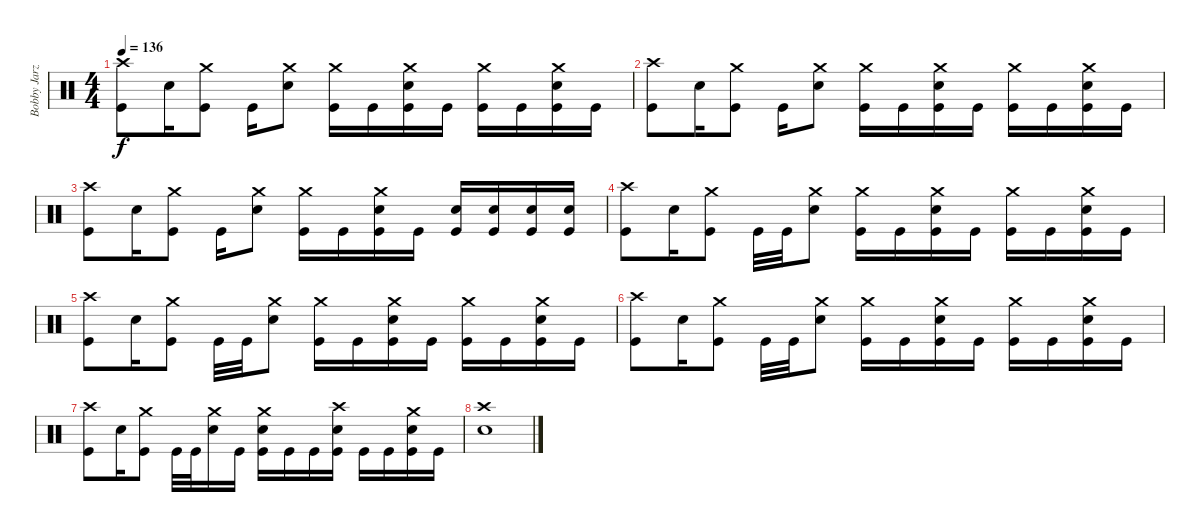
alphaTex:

\track ("Bobby Jarzombek" "Bobby Jarz") {instrument percussion}
\staff {score}
\articulation defaults
\ts (4 4)
\tempo 136
\clef neutral
\ks c
("Crash high (hit)" "Kick (hit)").8{dy f} "Electric Snare (hit)".16 ("Crash medium (hit)" "Kick (hit)").8 "Kick (hit)".16 ("Crash medium (hit)" "Electric Snare (hit)").8 ("Crash medium (hit)" "Kick (hit)").16 "Kick (hit)".16 ("Crash medium (hit)" "Electric Snare (hit)" "Kick (hit)").16 "Kick (hit)".16 ("Crash medium (hit)" "Kick (hit)").16 "Kick (hit)".16 ("Crash medium (hit)" "Electric Snare (hit)" "Kick (hit)").16 "Kick (hit)".16 |
("Crash high (hit)" "Kick (hit)").8 "Electric Snare (hit)".16 ("Crash medium (hit)" "Kick (hit)").8 "Kick (hit)".16 ("Crash medium (hit)" "Electric Snare (hit)").8 ("Crash medium (hit)" "Kick (hit)").16 "Kick (hit)".16 ("Crash medium (hit)" "Electric Snare (hit)" "Kick (hit)").16 "Kick (hit)".16 ("Crash medium (hit)" "Kick (hit)").16 "Kick (hit)".16 ("Crash medium (hit)" "Electric Snare (hit)" "Kick (hit)").16 "Kick (hit)".16 |
("Crash high (hit)" "Kick (hit)").8 "Electric Snare (hit)".16 ("Crash medium (hit)" "Kick (hit)").8 "Kick (hit)".16 ("Crash medium (hit)" "Electric Snare (hit)").8 ("Crash medium (hit)" "Kick (hit)").16 "Kick (hit)".16 ("Crash medium (hit)" "Electric Snare (hit)" "Kick (hit)").16 "Kick (hit)".16 ("Electric Snare (hit)" "Kick (hit)").16 ("Electric Snare (hit)" "Kick (hit)").16 ("Electric Snare (hit)" "Kick (hit)").16 ("Electric Snare (hit)" "Kick (hit)").16 |
("Crash high (hit)" "Kick (hit)").8 "Electric Snare (hit)".16 ("Crash medium (hit)" "Kick (hit)").8 "Kick (hit)".32 "Kick (hit)".32 ("Crash medium (hit)" "Electric Snare (hit)").8 ("Crash medium (hit)" "Kick (hit)").16 "Kick (hit)".16 ("Crash medium (hit)" "Electric Snare (hit)" "Kick (hit)").16 "Kick (hit)".16 ("Crash medium (hit)" "Kick (hit)").16 "Kick (hit)".16 ("Crash medium (hit)" "Electric Snare (hit)" "Kick (hit)").16 "Kick (hit)".16 |
("Crash high (hit)" "Kick (hit)").8 "Electric Snare (hit)".16 ("Crash medium (hit)" "Kick (hit)").8 "Kick (hit)".32 "Kick (hit)".32 ("Crash medium (hit)" "Electric Snare (hit)").8 ("Crash medium (hit)" "Kick (hit)").16 "Kick (hit)".16 ("Crash medium (hit)" "Electric Snare (hit)" "Kick (hit)").16 "Kick (hit)".16 ("Crash medium (hit)" "Kick (hit)").16 "Kick (hit)".16 ("Crash medium (hit)" "Electric Snare (hit)" "Kick (hit)").16 "Kick (hit)".16 |
("Crash high (hit)" "Kick (hit)").8 "Electric Snare (hit)".16 ("Crash medium (hit)" "Kick (hit)").8 "Kick (hit)".32 "Kick (hit)".32 ("Crash medium (hit)" "Electric Snare (hit)").8 ("Crash medium (hit)" "Kick (hit)").16 "Kick (hit)".16 ("Crash medium (hit)" "Electric Snare (hit)" "Kick (hit)").16 "Kick (hit)".16 ("Crash medium (hit)" "Kick (hit)").16 "Kick (hit)".16 ("Crash medium (hit)" "Electric Snare (hit)" "Kick (hit)").16 "Kick (hit)".16 |
("Crash high (hit)" "Kick (hit)").8 "Electric Snare (hit)".16 ("Crash medium (hit)" "Kick (hit)").8 "Kick (hit)".32 "Kick (hit)".32 ("Crash medium (hit)" "Electric Snare (hit)").16 "Kick (hit)".16 ("Crash medium (hit)" "Electric Snare (hit)" "Kick (hit)").16 "Kick (hit)".16 "Kick (hit)".16 ("Crash high (hit)" "Electric Snare (hit)" "Kick (hit)").16 "Kick (hit)".16 "Kick (hit)".16 ("Crash medium (hit)" "Electric Snare (hit)" "Kick (hit)").16 "Kick (hit)".16 |
("Crash high (hit)" "Electric Snare (hit)").1
